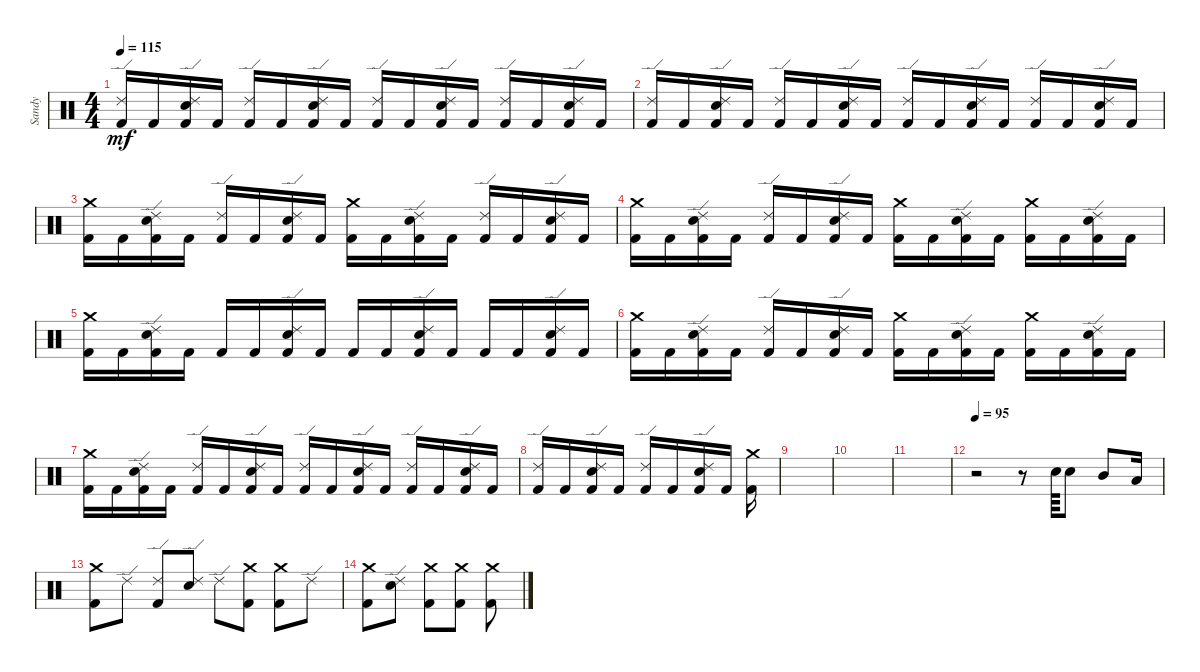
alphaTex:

\track ("Sandy" "Sandy") {instrument percussion}
\staff {score}
\articulation defaults
\ts (4 4)
\tempo 115
\clef neutral
\ks c
("Ride (edge) 2" "Kick (hit) 2").16{dy mf} "Kick (hit) 2".16 ("Ride (edge) 2" "Snare (hit) 2" "Kick (hit) 2").16 "Kick (hit) 2".16 ("Ride (edge) 2" "Kick (hit) 2").16 "Kick (hit) 2".16 ("Ride (edge) 2" "Snare (hit) 2" "Kick (hit) 2").16 "Kick (hit) 2".16 ("Ride (edge) 2" "Kick (hit) 2").16 "Kick (hit) 2".16 ("Ride (edge) 2" "Snare (hit) 2" "Kick (hit) 2").16 "Kick (hit) 2".16 ("Ride (edge) 2" "Kick (hit) 2").16 "Kick (hit) 2".16 ("Ride (edge) 2" "Snare (hit) 2" "Kick (hit) 2").16 "Kick (hit) 2".16 |
("Ride (edge) 2" "Kick (hit) 2").16 "Kick (hit) 2".16 ("Ride (edge) 2" "Snare (hit) 2" "Kick (hit) 2").16 "Kick (hit) 2".16 ("Ride (edge) 2" "Kick (hit) 2").16 "Kick (hit) 2".16 ("Ride (edge) 2" "Snare (hit) 2" "Kick (hit) 2").16 "Kick (hit) 2".16 ("Ride (edge) 2" "Kick (hit) 2").16 "Kick (hit) 2".16 ("Ride (edge) 2" "Snare (hit) 2" "Kick (hit) 2").16 "Kick (hit) 2".16 ("Ride (edge) 2" "Kick (hit) 2").16 "Kick (hit) 2".16 ("Ride (edge) 2" "Snare (hit) 2" "Kick (hit) 2").16 "Kick (hit) 2".16 |
("Crash medium (hit)" "Kick (hit) 2").16 "Kick (hit) 2".16 ("Ride (edge) 2" "Snare (hit) 2" "Kick (hit) 2").16 "Kick (hit) 2".16 ("Ride (edge) 2" "Kick (hit) 2").16 "Kick (hit) 2".16 ("Ride (edge) 2" "Snare (hit) 2" "Kick (hit) 2").16 "Kick (hit) 2".16 ("Crash medium (hit)" "Kick (hit) 2").16 "Kick (hit) 2".16 ("Ride (edge) 2" "Snare (hit) 2" "Kick (hit) 2").16 "Kick (hit) 2".16 ("Ride (edge) 2" "Kick (hit) 2").16 "Kick (hit) 2".16 ("Ride (edge) 2" "Snare (hit) 2" "Kick (hit) 2").16 "Kick (hit) 2".16 |
("Crash medium (hit)" "Kick (hit) 2").16 "Kick (hit) 2".16 ("Ride (edge) 2" "Snare (hit) 2" "Kick (hit) 2").16 "Kick (hit) 2".16 ("Ride (edge) 2" "Kick (hit) 2").16 "Kick (hit) 2".16 ("Ride (edge) 2" "Snare (hit) 2" "Kick (hit) 2").16 "Kick (hit) 2".16 ("Crash medium (hit)" "Kick (hit) 2").16 "Kick (hit) 2".16 ("Ride (edge) 2" "Snare (hit) 2" "Kick (hit) 2").16 "Kick (hit) 2".16 ("Crash medium (hit)" "Kick (hit) 2").16 "Kick (hit) 2".16 ("Ride (edge) 2" "Snare (hit) 2" "Kick (hit) 2").16 "Kick (hit) 2".16 |
("Crash medium (hit)" "Kick (hit) 2").16 "Kick (hit) 2".16 ("Ride (edge) 2" "Snare (hit) 2" "Kick (hit) 2").16 "Kick (hit) 2".16 "Kick (hit) 2".16 "Kick (hit) 2".16 ("Ride (edge) 2" "Snare (hit) 2" "Kick (hit) 2").16 "Kick (hit) 2".16 "Kick (hit) 2".16 "Kick (hit) 2".16 ("Ride (edge) 2" "Snare (hit) 2" "Kick (hit) 2").16 "Kick (hit) 2".16 "Kick (hit) 2".16 "Kick (hit) 2".16 ("Ride (edge) 2" "Snare (hit) 2" "Kick (hit) 2").16 "Kick (hit) 2".16 |
("Crash medium (hit)" "Kick (hit) 2").16 "Kick (hit) 2".16 ("Ride (edge) 2" "Snare (hit) 2" "Kick (hit) 2").16 "Kick (hit) 2".16 ("Ride (edge) 2" "Kick (hit) 2").16 "Kick (hit) 2".16 ("Ride (edge) 2" "Snare (hit) 2" "Kick (hit) 2").16 "Kick (hit) 2".16 ("Crash medium (hit)" "Kick (hit) 2").16 "Kick (hit) 2".16 ("Ride (edge) 2" "Snare (hit) 2" "Kick (hit) 2").16 "Kick (hit) 2".16 ("Crash medium (hit)" "Kick (hit) 2").16 "Kick (hit) 2".16 ("Ride (edge) 2" "Snare (hit) 2" "Kick (hit) 2").16 "Kick (hit) 2".16 |
("Crash medium (hit)" "Kick (hit) 2").16 "Kick (hit) 2".16 ("Ride (edge) 2" "Snare (hit) 2" "Kick (hit) 2").16 "Kick (hit) 2".16 ("Ride (edge) 2" "Kick (hit) 2").16 "Kick (hit) 2".16 ("Ride (edge) 2" "Snare (hit) 2" "Kick (hit) 2").16 "Kick (hit) 2".16 ("Ride (edge) 2" "Kick (hit) 2").16 "Kick (hit) 2".16 ("Ride (edge) 2" "Snare (hit) 2" "Kick (hit) 2").16 "Kick (hit) 2".16 ("Ride (edge) 2" "Kick (hit) 2").16 "Kick (hit) 2".16 ("Ride (edge) 2" "Snare (hit) 2" "Kick (hit) 2").16 "Kick (hit) 2".16 |
("Ride (edge) 2" "Kick (hit) 2").16 "Kick (hit) 2".16 ("Ride (edge) 2" "Snare (hit) 2" "Kick (hit) 2").16 "Kick (hit) 2".16 ("Ride (edge) 2" "Kick (hit) 2").16 "Kick (hit) 2".16 ("Ride (edge) 2" "Snare (hit) 2" "Kick (hit) 2").16 "Kick (hit) 2".16 ("Crash medium (hit)" "Kick (hit) 2").16 |
|
|
|
\tempo 95
r.2 r.8 "Snare (hit) 2".64 "Snare (hit) 2".8 "Mid Tom (hit)".8 "Low Tom (hit)".16 |
("Crash medium (hit)" "Kick (hit) 2").8 "Ride (edge) 2".8 ("Ride (edge) 2" "Kick (hit) 2").8 ("Ride (edge) 2" "Snare (hit) 2").8 "Ride (edge) 2".8 ("Crash medium (hit)" "Kick (hit) 2").8 ("Crash medium (hit)" "Kick (hit) 2").8 "Ride (edge) 2".8 |
("Crash medium (hit)" "Kick (hit) 2").8 ("Ride (edge) 2" "Snare (hit) 2").8 ("Crash medium (hit)" "Kick (hit) 2").8 ("Crash medium (hit)" "Kick (hit) 2").8 ("Crash medium (hit)" "Kick (hit) 2").8
